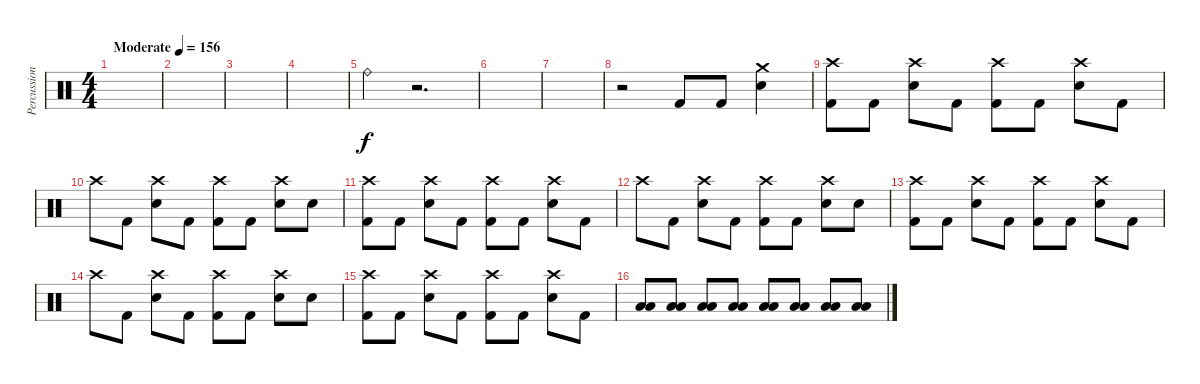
\track ("Percussion" "Percussion") {instrument percussion}
\staff {score}
\articulation defaults
\ts (4 4)
\tempo (156 "Moderate")
\clef neutral
\ks c
|
|
|
|
"Ride (bell)".4 r.2{d} |
|
|
r.2 "Kick (hit) 2".8 "Kick (hit) 2".8 ("Crash medium (hit)" "Electric Snare (hit)").4 |
("Crash high (hit)" "Kick (hit) 2").8 "Kick (hit) 2".8 ("Crash high (hit)" "Electric Snare (hit)").8 "Kick (hit) 2".8 ("Crash high (hit)" "Kick (hit) 2").8 "Kick (hit) 2".8 ("Crash high (hit)" "Electric Snare (hit)").8 "Kick (hit) 2".8 |
"Crash high (hit)".8 "Kick (hit) 2".8 ("Crash high (hit)" "Electric Snare (hit)").8 "Kick (hit) 2".8 ("Crash high (hit)" "Kick (hit) 2").8 "Kick (hit) 2".8 ("Crash high (hit)" "Electric Snare (hit)").8 "Electric Snare (hit)".8 |
("Crash high (hit)" "Kick (hit) 2").8 "Kick (hit) 2".8 ("Crash high (hit)" "Electric Snare (hit)").8 "Kick (hit) 2".8 ("Crash high (hit)" "Kick (hit) 2").8 "Kick (hit) 2".8 ("Crash high (hit)" "Electric Snare (hit)").8 "Kick (hit) 2".8 |
"Crash high (hit)".8 "Kick (hit) 2".8 ("Crash high (hit)" "Electric Snare (hit)").8 "Kick (hit) 2".8 ("Crash high (hit)" "Kick (hit) 2").8 "Kick (hit) 2".8 ("Crash high (hit)" "Electric Snare (hit)").8 "Electric Snare (hit)".8 |
("Crash high (hit)" "Kick (hit) 2").8 "Kick (hit) 2".8 ("Crash high (hit)" "Electric Snare (hit)").8 "Kick (hit) 2".8 ("Crash high (hit)" "Kick (hit) 2").8 "Kick (hit) 2".8 ("Crash high (hit)" "Electric Snare (hit)").8 "Kick (hit) 2".8 |
"Crash high (hit)".8 "Kick (hit) 2".8 ("Crash high (hit)" "Electric Snare (hit)").8 "Kick (hit) 2".8 ("Crash high (hit)" "Kick (hit) 2").8 "Kick (hit) 2".8 ("Crash high (hit)" "Electric Snare (hit)").8 "Electric Snare (hit)".8 |
("Crash high (hit)" "Kick (hit) 2").8 "Kick (hit) 2".8 ("Crash high (hit)" "Electric Snare (hit)").8 "Kick (hit) 2".8 ("Crash high (hit)" "Kick (hit) 2").8 "Kick (hit) 2".8 ("Crash high (hit)" "Electric Snare (hit)").8 "Kick (hit) 2".8 |
("Low Tom (hit)" "Low Tom (hit)").8{volume 7} ("Low Tom (hit)" "Low Tom (hit)").8{volume 13} ("Low Tom (hit)" "Low Tom (hit)").8 ("Low Tom (hit)" "Low Tom (hit)").8 ("Low Tom (hit)" "Low Tom (hit)").8 ("Low Tom (hit)" "Low Tom (hit)").8 ("Low Tom (hit)" "Low Tom (hit)").8 ("Low Tom (hit)" "Low Tom (hit)").8
